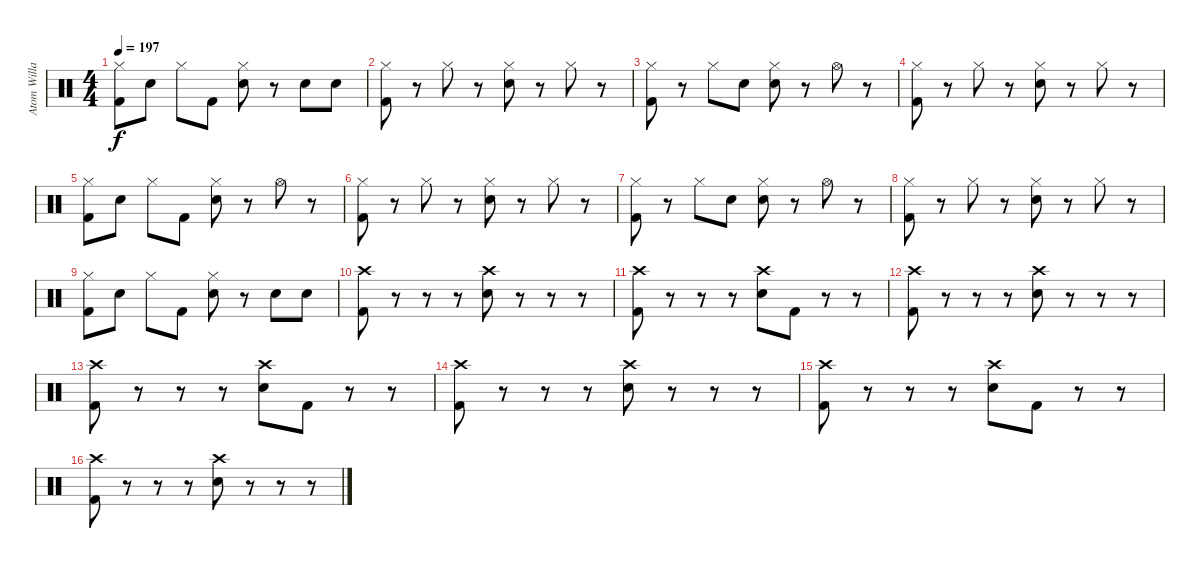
\track ("Atom Willard Drums" "Atom Willa") {instrument percussion}
\staff {score}
\articulation defaults
\ts (4 4)
\tempo 197
\clef neutral
\ks c
("Hi-Hat (closed)" "Kick (hit) 2").8{dy f} "Electric Snare (hit)".8 "Hi-Hat (closed)".8 "Kick (hit) 2".8 ("Hi-Hat (closed)" "Electric Snare (hit)").8 r.8 "Electric Snare (hit)".8 "Electric Snare (hit)".8 |
("Hi-Hat (closed)" "Kick (hit) 2").8 r.8 "Hi-Hat (closed)".8 r.8 ("Hi-Hat (closed)" "Electric Snare (hit)").8 r.8 "Hi-Hat (closed)".8 r.8 |
("Hi-Hat (closed)" "Kick (hit) 2").8 r.8 "Hi-Hat (closed)".8 "Electric Snare (hit)".8 ("Hi-Hat (closed)" "Electric Snare (hit)").8 r.8 "Hi-Hat (open)".8 r.8 |
("Hi-Hat (closed)" "Kick (hit) 2").8 r.8 "Hi-Hat (closed)".8 r.8 ("Hi-Hat (closed)" "Electric Snare (hit)").8 r.8 "Hi-Hat (closed)".8 r.8 |
("Hi-Hat (closed)" "Kick (hit) 2").8 "Electric Snare (hit)".8 "Hi-Hat (closed)".8 "Kick (hit) 2".8 ("Hi-Hat (closed)" "Electric Snare (hit)").8 r.8 "Hi-Hat (open)".8 r.8 |
("Hi-Hat (closed)" "Kick (hit) 2").8 r.8 "Hi-Hat (closed)".8 r.8 ("Hi-Hat (closed)" "Electric Snare (hit)").8 r.8 "Hi-Hat (closed)".8 r.8 |
("Hi-Hat (closed)" "Kick (hit) 2").8 r.8 "Hi-Hat (closed)".8 "Electric Snare (hit)".8 ("Hi-Hat (closed)" "Electric Snare (hit)").8 r.8 "Hi-Hat (open)".8 r.8 |
("Hi-Hat (closed)" "Kick (hit) 2").8 r.8 "Hi-Hat (closed)".8 r.8 ("Hi-Hat (closed)" "Electric Snare (hit)").8 r.8 "Hi-Hat (closed)".8 r.8 |
("Hi-Hat (closed)" "Kick (hit) 2").8 "Electric Snare (hit)".8 "Hi-Hat (closed)".8 "Kick (hit) 2".8 ("Hi-Hat (closed)" "Electric Snare (hit)").8 r.8 "Electric Snare (hit)".8 "Electric Snare (hit)".8 |
("Crash high (hit)" "Kick (hit) 2").8 r.8 r.8 r.8 ("Crash high (hit)" "Electric Snare (hit)").8 r.8 r.8 r.8 |
("Crash high (hit)" "Kick (hit) 2").8 r.8 r.8 r.8 ("Crash high (hit)" "Electric Snare (hit)").8 "Kick (hit) 2".8 r.8 r.8 |
("Crash high (hit)" "Kick (hit) 2").8 r.8 r.8 r.8 ("Crash high (hit)" "Electric Snare (hit)").8 r.8 r.8 r.8 |
("Crash high (hit)" "Kick (hit) 2").8 r.8 r.8 r.8 ("Crash high (hit)" "Electric Snare (hit)").8 "Kick (hit) 2".8 r.8 r.8 |
("Crash high (hit)" "Kick (hit) 2").8 r.8 r.8 r.8 ("Crash high (hit)" "Electric Snare (hit)").8 r.8 r.8 r.8 |
("Crash high (hit)" "Kick (hit) 2").8 r.8 r.8 r.8 ("Crash high (hit)" "Electric Snare (hit)").8 "Kick (hit) 2".8 r.8 r.8 |
("Crash high (hit)" "Kick (hit) 2").8 r.8 r.8 r.8 ("Crash high (hit)" "Electric Snare (hit)").8 r.8 r.8 r.8
